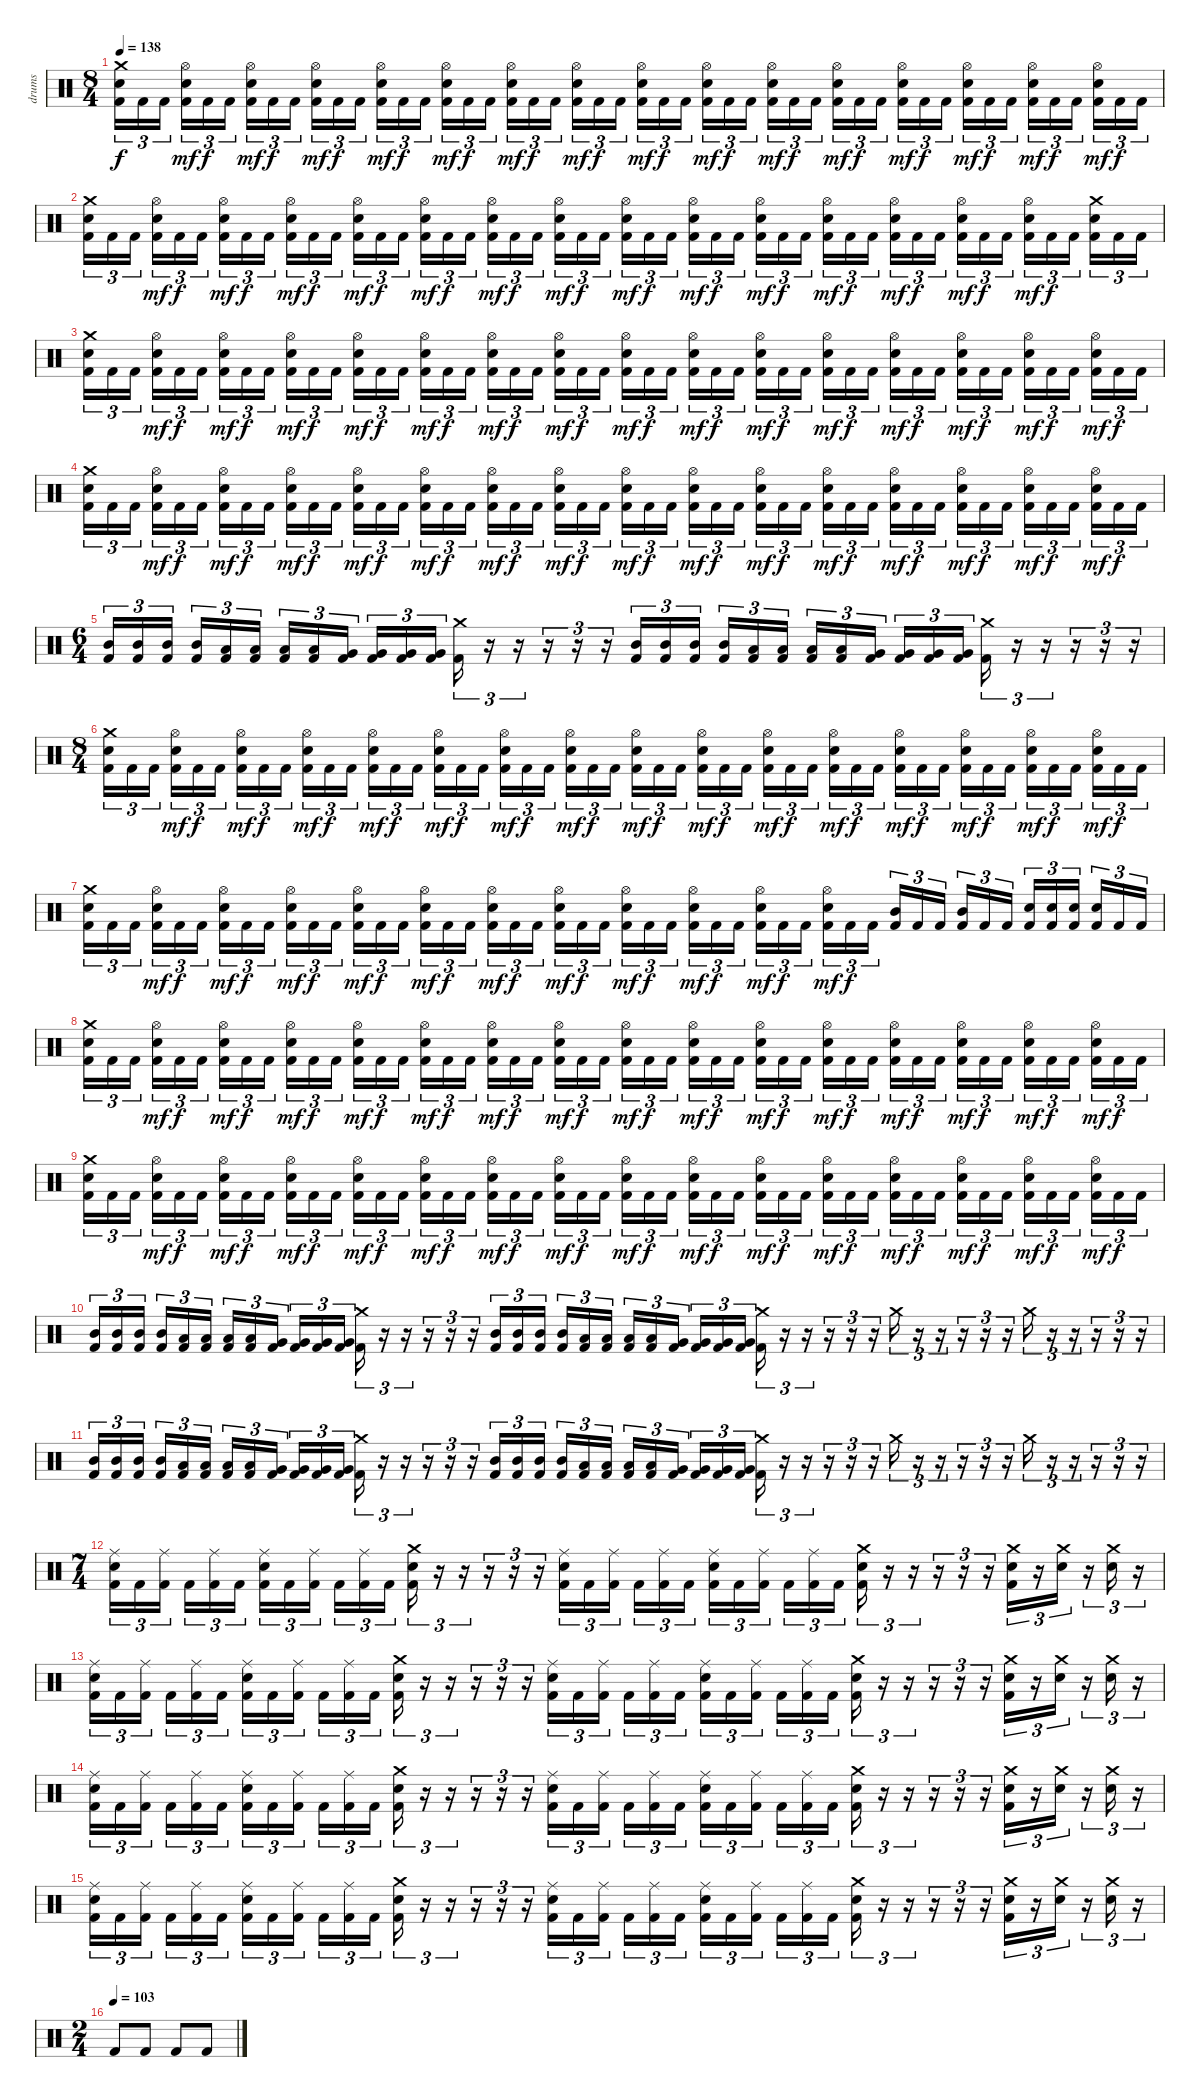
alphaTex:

\track ("drums" "drums") {instrument percussion}
\staff {score}
\articulation defaults
\ts (8 4)
\tempo 138
\clef neutral
\ks c
("Crash medium (hit)" "Electric Snare (hit)" "Kick (hit) 2").16{tu (3 2) dy f} "Kick (hit) 2".16{tu (3 2)} "Kick (hit) 2".16{tu (3 2)} ("Hi-Hat (open)" "Electric Snare (hit)" "Kick (hit) 2").16{tu (3 2) dy mf} "Kick (hit) 2".16{tu (3 2) dy f} "Kick (hit) 2".16{tu (3 2)} ("Hi-Hat (open)" "Electric Snare (hit)" "Kick (hit) 2").16{tu (3 2) dy mf} "Kick (hit) 2".16{tu (3 2) dy f} "Kick (hit) 2".16{tu (3 2)} ("Hi-Hat (open)" "Electric Snare (hit)" "Kick (hit) 2").16{tu (3 2) dy mf} "Kick (hit) 2".16{tu (3 2) dy f} "Kick (hit) 2".16{tu (3 2)} ("Hi-Hat (open)" "Electric Snare (hit)" "Kick (hit) 2").16{tu (3 2) dy mf} "Kick (hit) 2".16{tu (3 2) dy f} "Kick (hit) 2".16{tu (3 2)} ("Hi-Hat (open)" "Electric Snare (hit)" "Kick (hit) 2").16{tu (3 2) dy mf} "Kick (hit) 2".16{tu (3 2) dy f} "Kick (hit) 2".16{tu (3 2)} ("Hi-Hat (open)" "Electric Snare (hit)" "Kick (hit) 2").16{tu (3 2) dy mf} "Kick (hit) 2".16{tu (3 2) dy f} "Kick (hit) 2".16{tu (3 2)} ("Hi-Hat (open)" "Electric Snare (hit)" "Kick (hit) 2").16{tu (3 2) dy mf} "Kick (hit) 2".16{tu (3 2) dy f} "Kick (hit) 2".16{tu (3 2)} ("Hi-Hat (open)" "Electric Snare (hit)" "Kick (hit) 2").16{tu (3 2) dy mf} "Kick (hit) 2".16{tu (3 2) dy f} "Kick (hit) 2".16{tu (3 2)} ("Hi-Hat (open)" "Electric Snare (hit)" "Kick (hit) 2").16{tu (3 2) dy mf} "Kick (hit) 2".16{tu (3 2) dy f} "Kick (hit) 2".16{tu (3 2)} ("Hi-Hat (open)" "Electric Snare (hit)" "Kick (hit) 2").16{tu (3 2) dy mf} "Kick (hit) 2".16{tu (3 2) dy f} "Kick (hit) 2".16{tu (3 2)} ("Hi-Hat (open)" "Electric Snare (hit)" "Kick (hit) 2").16{tu (3 2) dy mf} "Kick (hit) 2".16{tu (3 2) dy f} "Kick (hit) 2".16{tu (3 2)} ("Hi-Hat (open)" "Electric Snare (hit)" "Kick (hit) 2").16{tu (3 2) dy mf} "Kick (hit) 2".16{tu (3 2) dy f} "Kick (hit) 2".16{tu (3 2)} ("Hi-Hat (open)" "Electric Snare (hit)" "Kick (hit) 2").16{tu (3 2) dy mf} "Kick (hit) 2".16{tu (3 2) dy f} "Kick (hit) 2".16{tu (3 2)} ("Hi-Hat (open)" "Electric Snare (hit)" "Kick (hit) 2").16{tu (3 2) dy mf} "Kick (hit) 2".16{tu (3 2) dy f} "Kick (hit) 2".16{tu (3 2)} ("Hi-Hat (open)" "Electric Snare (hit)" "Kick (hit) 2").16{tu (3 2) dy mf} "Kick (hit) 2".16{tu (3 2) dy f} "Kick (hit) 2".16{tu (3 2)} |
("Crash medium (hit)" "Electric Snare (hit)" "Kick (hit) 2").16{tu (3 2)} "Kick (hit) 2".16{tu (3 2)} "Kick (hit) 2".16{tu (3 2)} ("Hi-Hat (open)" "Electric Snare (hit)" "Kick (hit) 2").16{tu (3 2) dy mf} "Kick (hit) 2".16{tu (3 2) dy f} "Kick (hit) 2".16{tu (3 2)} ("Hi-Hat (open)" "Electric Snare (hit)" "Kick (hit) 2").16{tu (3 2) dy mf} "Kick (hit) 2".16{tu (3 2) dy f} "Kick (hit) 2".16{tu (3 2)} ("Hi-Hat (open)" "Electric Snare (hit)" "Kick (hit) 2").16{tu (3 2) dy mf} "Kick (hit) 2".16{tu (3 2) dy f} "Kick (hit) 2".16{tu (3 2)} ("Hi-Hat (open)" "Electric Snare (hit)" "Kick (hit) 2").16{tu (3 2) dy mf} "Kick (hit) 2".16{tu (3 2) dy f} "Kick (hit) 2".16{tu (3 2)} ("Hi-Hat (open)" "Electric Snare (hit)" "Kick (hit) 2").16{tu (3 2) dy mf} "Kick (hit) 2".16{tu (3 2) dy f} "Kick (hit) 2".16{tu (3 2)} ("Hi-Hat (open)" "Electric Snare (hit)" "Kick (hit) 2").16{tu (3 2) dy mf} "Kick (hit) 2".16{tu (3 2) dy f} "Kick (hit) 2".16{tu (3 2)} ("Hi-Hat (open)" "Electric Snare (hit)" "Kick (hit) 2").16{tu (3 2) dy mf} "Kick (hit) 2".16{tu (3 2) dy f} "Kick (hit) 2".16{tu (3 2)} ("Hi-Hat (open)" "Electric Snare (hit)" "Kick (hit) 2").16{tu (3 2) dy mf} "Kick (hit) 2".16{tu (3 2) dy f} "Kick (hit) 2".16{tu (3 2)} ("Hi-Hat (open)" "Electric Snare (hit)" "Kick (hit) 2").16{tu (3 2) dy mf} "Kick (hit) 2".16{tu (3 2) dy f} "Kick (hit) 2".16{tu (3 2)} ("Hi-Hat (open)" "Electric Snare (hit)" "Kick (hit) 2").16{tu (3 2) dy mf} "Kick (hit) 2".16{tu (3 2) dy f} "Kick (hit) 2".16{tu (3 2)} ("Hi-Hat (open)" "Electric Snare (hit)" "Kick (hit) 2").16{tu (3 2) dy mf} "Kick (hit) 2".16{tu (3 2) dy f} "Kick (hit) 2".16{tu (3 2)} ("Hi-Hat (open)" "Electric Snare (hit)" "Kick (hit) 2").16{tu (3 2) dy mf} "Kick (hit) 2".16{tu (3 2) dy f} "Kick (hit) 2".16{tu (3 2)} ("Hi-Hat (open)" "Electric Snare (hit)" "Kick (hit) 2").16{tu (3 2) dy mf} "Kick (hit) 2".16{tu (3 2) dy f} "Kick (hit) 2".16{tu (3 2)} ("Hi-Hat (open)" "Electric Snare (hit)" "Kick (hit) 2").16{tu (3 2) dy mf} "Kick (hit) 2".16{tu (3 2) dy f} "Kick (hit) 2".16{tu (3 2)} ("Crash medium (hit)" "Electric Snare (hit)" "Kick (hit) 2").16{tu (3 2)} "Kick (hit) 2".16{tu (3 2)} "Kick (hit) 2".16{tu (3 2)} |
("Crash medium (hit)" "Electric Snare (hit)" "Kick (hit) 2").16{tu (3 2)} "Kick (hit) 2".16{tu (3 2)} "Kick (hit) 2".16{tu (3 2)} ("Hi-Hat (open)" "Electric Snare (hit)" "Kick (hit) 2").16{tu (3 2) dy mf} "Kick (hit) 2".16{tu (3 2) dy f} "Kick (hit) 2".16{tu (3 2)} ("Hi-Hat (open)" "Electric Snare (hit)" "Kick (hit) 2").16{tu (3 2) dy mf} "Kick (hit) 2".16{tu (3 2) dy f} "Kick (hit) 2".16{tu (3 2)} ("Hi-Hat (open)" "Electric Snare (hit)" "Kick (hit) 2").16{tu (3 2) dy mf} "Kick (hit) 2".16{tu (3 2) dy f} "Kick (hit) 2".16{tu (3 2)} ("Hi-Hat (open)" "Electric Snare (hit)" "Kick (hit) 2").16{tu (3 2) dy mf} "Kick (hit) 2".16{tu (3 2) dy f} "Kick (hit) 2".16{tu (3 2)} ("Hi-Hat (open)" "Electric Snare (hit)" "Kick (hit) 2").16{tu (3 2) dy mf} "Kick (hit) 2".16{tu (3 2) dy f} "Kick (hit) 2".16{tu (3 2)} ("Hi-Hat (open)" "Electric Snare (hit)" "Kick (hit) 2").16{tu (3 2) dy mf} "Kick (hit) 2".16{tu (3 2) dy f} "Kick (hit) 2".16{tu (3 2)} ("Hi-Hat (open)" "Electric Snare (hit)" "Kick (hit) 2").16{tu (3 2) dy mf} "Kick (hit) 2".16{tu (3 2) dy f} "Kick (hit) 2".16{tu (3 2)} ("Hi-Hat (open)" "Electric Snare (hit)" "Kick (hit) 2").16{tu (3 2) dy mf} "Kick (hit) 2".16{tu (3 2) dy f} "Kick (hit) 2".16{tu (3 2)} ("Hi-Hat (open)" "Electric Snare (hit)" "Kick (hit) 2").16{tu (3 2) dy mf} "Kick (hit) 2".16{tu (3 2) dy f} "Kick (hit) 2".16{tu (3 2)} ("Hi-Hat (open)" "Electric Snare (hit)" "Kick (hit) 2").16{tu (3 2) dy mf} "Kick (hit) 2".16{tu (3 2) dy f} "Kick (hit) 2".16{tu (3 2)} ("Hi-Hat (open)" "Electric Snare (hit)" "Kick (hit) 2").16{tu (3 2) dy mf} "Kick (hit) 2".16{tu (3 2) dy f} "Kick (hit) 2".16{tu (3 2)} ("Hi-Hat (open)" "Electric Snare (hit)" "Kick (hit) 2").16{tu (3 2) dy mf} "Kick (hit) 2".16{tu (3 2) dy f} "Kick (hit) 2".16{tu (3 2)} ("Hi-Hat (open)" "Electric Snare (hit)" "Kick (hit) 2").16{tu (3 2) dy mf} "Kick (hit) 2".16{tu (3 2) dy f} "Kick (hit) 2".16{tu (3 2)} ("Hi-Hat (open)" "Electric Snare (hit)" "Kick (hit) 2").16{tu (3 2) dy mf} "Kick (hit) 2".16{tu (3 2) dy f} "Kick (hit) 2".16{tu (3 2)} ("Hi-Hat (open)" "Electric Snare (hit)" "Kick (hit) 2").16{tu (3 2) dy mf} "Kick (hit) 2".16{tu (3 2) dy f} "Kick (hit) 2".16{tu (3 2)} |
("Crash medium (hit)" "Electric Snare (hit)" "Kick (hit) 2").16{tu (3 2)} "Kick (hit) 2".16{tu (3 2)} "Kick (hit) 2".16{tu (3 2)} ("Hi-Hat (open)" "Electric Snare (hit)" "Kick (hit) 2").16{tu (3 2) dy mf} "Kick (hit) 2".16{tu (3 2) dy f} "Kick (hit) 2".16{tu (3 2)} ("Hi-Hat (open)" "Electric Snare (hit)" "Kick (hit) 2").16{tu (3 2) dy mf} "Kick (hit) 2".16{tu (3 2) dy f} "Kick (hit) 2".16{tu (3 2)} ("Hi-Hat (open)" "Electric Snare (hit)" "Kick (hit) 2").16{tu (3 2) dy mf} "Kick (hit) 2".16{tu (3 2) dy f} "Kick (hit) 2".16{tu (3 2)} ("Hi-Hat (open)" "Electric Snare (hit)" "Kick (hit) 2").16{tu (3 2) dy mf} "Kick (hit) 2".16{tu (3 2) dy f} "Kick (hit) 2".16{tu (3 2)} ("Hi-Hat (open)" "Electric Snare (hit)" "Kick (hit) 2").16{tu (3 2) dy mf} "Kick (hit) 2".16{tu (3 2) dy f} "Kick (hit) 2".16{tu (3 2)} ("Hi-Hat (open)" "Electric Snare (hit)" "Kick (hit) 2").16{tu (3 2) dy mf} "Kick (hit) 2".16{tu (3 2) dy f} "Kick (hit) 2".16{tu (3 2)} ("Hi-Hat (open)" "Electric Snare (hit)" "Kick (hit) 2").16{tu (3 2) dy mf} "Kick (hit) 2".16{tu (3 2) dy f} "Kick (hit) 2".16{tu (3 2)} ("Hi-Hat (open)" "Electric Snare (hit)" "Kick (hit) 2").16{tu (3 2) dy mf} "Kick (hit) 2".16{tu (3 2) dy f} "Kick (hit) 2".16{tu (3 2)} ("Hi-Hat (open)" "Electric Snare (hit)" "Kick (hit) 2").16{tu (3 2) dy mf} "Kick (hit) 2".16{tu (3 2) dy f} "Kick (hit) 2".16{tu (3 2)} ("Hi-Hat (open)" "Electric Snare (hit)" "Kick (hit) 2").16{tu (3 2) dy mf} "Kick (hit) 2".16{tu (3 2) dy f} "Kick (hit) 2".16{tu (3 2)} ("Hi-Hat (open)" "Electric Snare (hit)" "Kick (hit) 2").16{tu (3 2) dy mf} "Kick (hit) 2".16{tu (3 2) dy f} "Kick (hit) 2".16{tu (3 2)} ("Hi-Hat (open)" "Electric Snare (hit)" "Kick (hit) 2").16{tu (3 2) dy mf} "Kick (hit) 2".16{tu (3 2) dy f} "Kick (hit) 2".16{tu (3 2)} ("Hi-Hat (open)" "Electric Snare (hit)" "Kick (hit) 2").16{tu (3 2) dy mf} "Kick (hit) 2".16{tu (3 2) dy f} "Kick (hit) 2".16{tu (3 2)} ("Hi-Hat (open)" "Electric Snare (hit)" "Kick (hit) 2").16{tu (3 2) dy mf} "Kick (hit) 2".16{tu (3 2) dy f} "Kick (hit) 2".16{tu (3 2)} ("Hi-Hat (open)" "Electric Snare (hit)" "Kick (hit) 2").16{tu (3 2) dy mf} "Kick (hit) 2".16{tu (3 2) dy f} "Kick (hit) 2".16{tu (3 2)} |
\ts (6 4)
("Mid Tom (hit)" "Kick (hit) 2").16{tu (3 2)} ("Mid Tom (hit)" "Kick (hit) 2").16{tu (3 2)} ("Mid Tom (hit)" "Kick (hit) 2").16{tu (3 2)} ("Mid Tom (hit)" "Kick (hit) 2").16{tu (3 2)} ("Low Tom (hit)" "Kick (hit) 2").16{tu (3 2)} ("Low Tom (hit)" "Kick (hit) 2").16{tu (3 2)} ("Low Tom (hit)" "Kick (hit) 2").16{tu (3 2)} ("Low Tom (hit)" "Kick (hit) 2").16{tu (3 2)} ("Very Low Tom (hit)" "Kick (hit) 2").16{tu (3 2)} ("Very Low Tom (hit)" "Kick (hit) 2").16{tu (3 2)} ("Very Low Tom (hit)" "Kick (hit) 2").16{tu (3 2)} ("Very Low Tom (hit)" "Kick (hit) 2").16{tu (3 2)} ("Crash medium (hit)" "Kick (hit) 2").16{tu (3 2)} r.16{tu (3 2)} r.16{tu (3 2)} r.16{tu (3 2)} r.16{tu (3 2)} r.16{tu (3 2)} ("Mid Tom (hit)" "Kick (hit) 2").16{tu (3 2)} ("Mid Tom (hit)" "Kick (hit) 2").16{tu (3 2)} ("Mid Tom (hit)" "Kick (hit) 2").16{tu (3 2)} ("Mid Tom (hit)" "Kick (hit) 2").16{tu (3 2)} ("Low Tom (hit)" "Kick (hit) 2").16{tu (3 2)} ("Low Tom (hit)" "Kick (hit) 2").16{tu (3 2)} ("Low Tom (hit)" "Kick (hit) 2").16{tu (3 2)} ("Low Tom (hit)" "Kick (hit) 2").16{tu (3 2)} ("Very Low Tom (hit)" "Kick (hit) 2").16{tu (3 2)} ("Very Low Tom (hit)" "Kick (hit) 2").16{tu (3 2)} ("Very Low Tom (hit)" "Kick (hit) 2").16{tu (3 2)} ("Very Low Tom (hit)" "Kick (hit) 2").16{tu (3 2)} ("Crash medium (hit)" "Kick (hit) 2").16{tu (3 2)} r.16{tu (3 2)} r.16{tu (3 2)} r.16{tu (3 2)} r.16{tu (3 2)} r.16{tu (3 2)} |
\ts (8 4)
("Crash medium (hit)" "Electric Snare (hit)" "Kick (hit) 2").16{tu (3 2)} "Kick (hit) 2".16{tu (3 2)} "Kick (hit) 2".16{tu (3 2)} ("Hi-Hat (open)" "Electric Snare (hit)" "Kick (hit) 2").16{tu (3 2) dy mf} "Kick (hit) 2".16{tu (3 2) dy f} "Kick (hit) 2".16{tu (3 2)} ("Hi-Hat (open)" "Electric Snare (hit)" "Kick (hit) 2").16{tu (3 2) dy mf} "Kick (hit) 2".16{tu (3 2) dy f} "Kick (hit) 2".16{tu (3 2)} ("Hi-Hat (open)" "Electric Snare (hit)" "Kick (hit) 2").16{tu (3 2) dy mf} "Kick (hit) 2".16{tu (3 2) dy f} "Kick (hit) 2".16{tu (3 2)} ("Hi-Hat (open)" "Electric Snare (hit)" "Kick (hit) 2").16{tu (3 2) dy mf} "Kick (hit) 2".16{tu (3 2) dy f} "Kick (hit) 2".16{tu (3 2)} ("Hi-Hat (open)" "Electric Snare (hit)" "Kick (hit) 2").16{tu (3 2) dy mf} "Kick (hit) 2".16{tu (3 2) dy f} "Kick (hit) 2".16{tu (3 2)} ("Hi-Hat (open)" "Electric Snare (hit)" "Kick (hit) 2").16{tu (3 2) dy mf} "Kick (hit) 2".16{tu (3 2) dy f} "Kick (hit) 2".16{tu (3 2)} ("Hi-Hat (open)" "Electric Snare (hit)" "Kick (hit) 2").16{tu (3 2) dy mf} "Kick (hit) 2".16{tu (3 2) dy f} "Kick (hit) 2".16{tu (3 2)} ("Hi-Hat (open)" "Electric Snare (hit)" "Kick (hit) 2").16{tu (3 2) dy mf} "Kick (hit) 2".16{tu (3 2) dy f} "Kick (hit) 2".16{tu (3 2)} ("Hi-Hat (open)" "Electric Snare (hit)" "Kick (hit) 2").16{tu (3 2) dy mf} "Kick (hit) 2".16{tu (3 2) dy f} "Kick (hit) 2".16{tu (3 2)} ("Hi-Hat (open)" "Electric Snare (hit)" "Kick (hit) 2").16{tu (3 2) dy mf} "Kick (hit) 2".16{tu (3 2) dy f} "Kick (hit) 2".16{tu (3 2)} ("Hi-Hat (open)" "Electric Snare (hit)" "Kick (hit) 2").16{tu (3 2) dy mf} "Kick (hit) 2".16{tu (3 2) dy f} "Kick (hit) 2".16{tu (3 2)} ("Hi-Hat (open)" "Electric Snare (hit)" "Kick (hit) 2").16{tu (3 2) dy mf} "Kick (hit) 2".16{tu (3 2) dy f} "Kick (hit) 2".16{tu (3 2)} ("Hi-Hat (open)" "Electric Snare (hit)" "Kick (hit) 2").16{tu (3 2) dy mf} "Kick (hit) 2".16{tu (3 2) dy f} "Kick (hit) 2".16{tu (3 2)} ("Hi-Hat (open)" "Electric Snare (hit)" "Kick (hit) 2").16{tu (3 2) dy mf} "Kick (hit) 2".16{tu (3 2) dy f} "Kick (hit) 2".16{tu (3 2)} ("Hi-Hat (open)" "Electric Snare (hit)" "Kick (hit) 2").16{tu (3 2) dy mf} "Kick (hit) 2".16{tu (3 2) dy f} "Kick (hit) 2".16{tu (3 2)} |
("Crash medium (hit)" "Electric Snare (hit)" "Kick (hit) 2").16{tu (3 2)} "Kick (hit) 2".16{tu (3 2)} "Kick (hit) 2".16{tu (3 2)} ("Hi-Hat (open)" "Electric Snare (hit)" "Kick (hit) 2").16{tu (3 2) dy mf} "Kick (hit) 2".16{tu (3 2) dy f} "Kick (hit) 2".16{tu (3 2)} ("Hi-Hat (open)" "Electric Snare (hit)" "Kick (hit) 2").16{tu (3 2) dy mf} "Kick (hit) 2".16{tu (3 2) dy f} "Kick (hit) 2".16{tu (3 2)} ("Hi-Hat (open)" "Electric Snare (hit)" "Kick (hit) 2").16{tu (3 2) dy mf} "Kick (hit) 2".16{tu (3 2) dy f} "Kick (hit) 2".16{tu (3 2)} ("Hi-Hat (open)" "Electric Snare (hit)" "Kick (hit) 2").16{tu (3 2) dy mf} "Kick (hit) 2".16{tu (3 2) dy f} "Kick (hit) 2".16{tu (3 2)} ("Hi-Hat (open)" "Electric Snare (hit)" "Kick (hit) 2").16{tu (3 2) dy mf} "Kick (hit) 2".16{tu (3 2) dy f} "Kick (hit) 2".16{tu (3 2)} ("Hi-Hat (open)" "Electric Snare (hit)" "Kick (hit) 2").16{tu (3 2) dy mf} "Kick (hit) 2".16{tu (3 2) dy f} "Kick (hit) 2".16{tu (3 2)} ("Hi-Hat (open)" "Electric Snare (hit)" "Kick (hit) 2").16{tu (3 2) dy mf} "Kick (hit) 2".16{tu (3 2) dy f} "Kick (hit) 2".16{tu (3 2)} ("Hi-Hat (open)" "Electric Snare (hit)" "Kick (hit) 2").16{tu (3 2) dy mf} "Kick (hit) 2".16{tu (3 2) dy f} "Kick (hit) 2".16{tu (3 2)} ("Hi-Hat (open)" "Electric Snare (hit)" "Kick (hit) 2").16{tu (3 2) dy mf} "Kick (hit) 2".16{tu (3 2) dy f} "Kick (hit) 2".16{tu (3 2)} ("Hi-Hat (open)" "Electric Snare (hit)" "Kick (hit) 2").16{tu (3 2) dy mf} "Kick (hit) 2".16{tu (3 2) dy f} "Kick (hit) 2".16{tu (3 2)} ("Hi-Hat (open)" "Electric Snare (hit)" "Kick (hit) 2").16{tu (3 2) dy mf} "Kick (hit) 2".16{tu (3 2) dy f} "Kick (hit) 2".16{tu (3 2)} ("Mid Tom (hit)" "Kick (hit) 2").16{tu (3 2)} "Kick (hit) 2".16{tu (3 2)} "Kick (hit) 2".16{tu (3 2)} ("Mid Tom (hit)" "Kick (hit) 2").16{tu (3 2)} "Kick (hit) 2".16{tu (3 2)} "Kick (hit) 2".16{tu (3 2)} ("Electric Snare (hit)" "Kick (hit) 2").16{tu (3 2)} ("Electric Snare (hit)" "Kick (hit) 2").16{tu (3 2)} ("Electric Snare (hit)" "Kick (hit) 2").16{tu (3 2)} ("Electric Snare (hit)" "Kick (hit) 2").16{tu (3 2)} "Kick (hit) 2".16{tu (3 2)} "Kick (hit) 2".16{tu (3 2)} |
("Crash medium (hit)" "Electric Snare (hit)" "Kick (hit) 2").16{tu (3 2)} "Kick (hit) 2".16{tu (3 2)} "Kick (hit) 2".16{tu (3 2)} ("Hi-Hat (open)" "Electric Snare (hit)" "Kick (hit) 2").16{tu (3 2) dy mf} "Kick (hit) 2".16{tu (3 2) dy f} "Kick (hit) 2".16{tu (3 2)} ("Hi-Hat (open)" "Electric Snare (hit)" "Kick (hit) 2").16{tu (3 2) dy mf} "Kick (hit) 2".16{tu (3 2) dy f} "Kick (hit) 2".16{tu (3 2)} ("Hi-Hat (open)" "Electric Snare (hit)" "Kick (hit) 2").16{tu (3 2) dy mf} "Kick (hit) 2".16{tu (3 2) dy f} "Kick (hit) 2".16{tu (3 2)} ("Hi-Hat (open)" "Electric Snare (hit)" "Kick (hit) 2").16{tu (3 2) dy mf} "Kick (hit) 2".16{tu (3 2) dy f} "Kick (hit) 2".16{tu (3 2)} ("Hi-Hat (open)" "Electric Snare (hit)" "Kick (hit) 2").16{tu (3 2) dy mf} "Kick (hit) 2".16{tu (3 2) dy f} "Kick (hit) 2".16{tu (3 2)} ("Hi-Hat (open)" "Electric Snare (hit)" "Kick (hit) 2").16{tu (3 2) dy mf} "Kick (hit) 2".16{tu (3 2) dy f} "Kick (hit) 2".16{tu (3 2)} ("Hi-Hat (open)" "Electric Snare (hit)" "Kick (hit) 2").16{tu (3 2) dy mf} "Kick (hit) 2".16{tu (3 2) dy f} "Kick (hit) 2".16{tu (3 2)} ("Hi-Hat (open)" "Electric Snare (hit)" "Kick (hit) 2").16{tu (3 2) dy mf} "Kick (hit) 2".16{tu (3 2) dy f} "Kick (hit) 2".16{tu (3 2)} ("Hi-Hat (open)" "Electric Snare (hit)" "Kick (hit) 2").16{tu (3 2) dy mf} "Kick (hit) 2".16{tu (3 2) dy f} "Kick (hit) 2".16{tu (3 2)} ("Hi-Hat (open)" "Electric Snare (hit)" "Kick (hit) 2").16{tu (3 2) dy mf} "Kick (hit) 2".16{tu (3 2) dy f} "Kick (hit) 2".16{tu (3 2)} ("Hi-Hat (open)" "Electric Snare (hit)" "Kick (hit) 2").16{tu (3 2) dy mf} "Kick (hit) 2".16{tu (3 2) dy f} "Kick (hit) 2".16{tu (3 2)} ("Hi-Hat (open)" "Electric Snare (hit)" "Kick (hit) 2").16{tu (3 2) dy mf} "Kick (hit) 2".16{tu (3 2) dy f} "Kick (hit) 2".16{tu (3 2)} ("Hi-Hat (open)" "Electric Snare (hit)" "Kick (hit) 2").16{tu (3 2) dy mf} "Kick (hit) 2".16{tu (3 2) dy f} "Kick (hit) 2".16{tu (3 2)} ("Hi-Hat (open)" "Electric Snare (hit)" "Kick (hit) 2").16{tu (3 2) dy mf} "Kick (hit) 2".16{tu (3 2) dy f} "Kick (hit) 2".16{tu (3 2)} ("Hi-Hat (open)" "Electric Snare (hit)" "Kick (hit) 2").16{tu (3 2) dy mf} "Kick (hit) 2".16{tu (3 2) dy f} "Kick (hit) 2".16{tu (3 2)} |
("Crash medium (hit)" "Electric Snare (hit)" "Kick (hit) 2").16{tu (3 2)} "Kick (hit) 2".16{tu (3 2)} "Kick (hit) 2".16{tu (3 2)} ("Hi-Hat (open)" "Electric Snare (hit)" "Kick (hit) 2").16{tu (3 2) dy mf} "Kick (hit) 2".16{tu (3 2) dy f} "Kick (hit) 2".16{tu (3 2)} ("Hi-Hat (open)" "Electric Snare (hit)" "Kick (hit) 2").16{tu (3 2) dy mf} "Kick (hit) 2".16{tu (3 2) dy f} "Kick (hit) 2".16{tu (3 2)} ("Hi-Hat (open)" "Electric Snare (hit)" "Kick (hit) 2").16{tu (3 2) dy mf} "Kick (hit) 2".16{tu (3 2) dy f} "Kick (hit) 2".16{tu (3 2)} ("Hi-Hat (open)" "Electric Snare (hit)" "Kick (hit) 2").16{tu (3 2) dy mf} "Kick (hit) 2".16{tu (3 2) dy f} "Kick (hit) 2".16{tu (3 2)} ("Hi-Hat (open)" "Electric Snare (hit)" "Kick (hit) 2").16{tu (3 2) dy mf} "Kick (hit) 2".16{tu (3 2) dy f} "Kick (hit) 2".16{tu (3 2)} ("Hi-Hat (open)" "Electric Snare (hit)" "Kick (hit) 2").16{tu (3 2) dy mf} "Kick (hit) 2".16{tu (3 2) dy f} "Kick (hit) 2".16{tu (3 2)} ("Hi-Hat (open)" "Electric Snare (hit)" "Kick (hit) 2").16{tu (3 2) dy mf} "Kick (hit) 2".16{tu (3 2) dy f} "Kick (hit) 2".16{tu (3 2)} ("Hi-Hat (open)" "Electric Snare (hit)" "Kick (hit) 2").16{tu (3 2) dy mf} "Kick (hit) 2".16{tu (3 2) dy f} "Kick (hit) 2".16{tu (3 2)} ("Hi-Hat (open)" "Electric Snare (hit)" "Kick (hit) 2").16{tu (3 2) dy mf} "Kick (hit) 2".16{tu (3 2) dy f} "Kick (hit) 2".16{tu (3 2)} ("Hi-Hat (open)" "Electric Snare (hit)" "Kick (hit) 2").16{tu (3 2) dy mf} "Kick (hit) 2".16{tu (3 2) dy f} "Kick (hit) 2".16{tu (3 2)} ("Hi-Hat (open)" "Electric Snare (hit)" "Kick (hit) 2").16{tu (3 2) dy mf} "Kick (hit) 2".16{tu (3 2) dy f} "Kick (hit) 2".16{tu (3 2)} ("Hi-Hat (open)" "Electric Snare (hit)" "Kick (hit) 2").16{tu (3 2) dy mf} "Kick (hit) 2".16{tu (3 2) dy f} "Kick (hit) 2".16{tu (3 2)} ("Hi-Hat (open)" "Electric Snare (hit)" "Kick (hit) 2").16{tu (3 2) dy mf} "Kick (hit) 2".16{tu (3 2) dy f} "Kick (hit) 2".16{tu (3 2)} ("Hi-Hat (open)" "Electric Snare (hit)" "Kick (hit) 2").16{tu (3 2) dy mf} "Kick (hit) 2".16{tu (3 2) dy f} "Kick (hit) 2".16{tu (3 2)} ("Hi-Hat (open)" "Electric Snare (hit)" "Kick (hit) 2").16{tu (3 2) dy mf} "Kick (hit) 2".16{tu (3 2) dy f} "Kick (hit) 2".16{tu (3 2)} |
("Mid Tom (hit)" "Kick (hit) 2").16{tu (3 2)} ("Mid Tom (hit)" "Kick (hit) 2").16{tu (3 2)} ("Mid Tom (hit)" "Kick (hit) 2").16{tu (3 2)} ("Mid Tom (hit)" "Kick (hit) 2").16{tu (3 2)} ("Low Tom (hit)" "Kick (hit) 2").16{tu (3 2)} ("Low Tom (hit)" "Kick (hit) 2").16{tu (3 2)} ("Low Tom (hit)" "Kick (hit) 2").16{tu (3 2)} ("Low Tom (hit)" "Kick (hit) 2").16{tu (3 2)} ("Very Low Tom (hit)" "Kick (hit) 2").16{tu (3 2)} ("Very Low Tom (hit)" "Kick (hit) 2").16{tu (3 2)} ("Very Low Tom (hit)" "Kick (hit) 2").16{tu (3 2)} ("Very Low Tom (hit)" "Kick (hit) 2").16{tu (3 2)} ("Crash medium (hit)" "Kick (hit) 2").16{tu (3 2)} r.16{tu (3 2)} r.16{tu (3 2)} r.16{tu (3 2)} r.16{tu (3 2)} r.16{tu (3 2)} ("Mid Tom (hit)" "Kick (hit) 2").16{tu (3 2)} ("Mid Tom (hit)" "Kick (hit) 2").16{tu (3 2)} ("Mid Tom (hit)" "Kick (hit) 2").16{tu (3 2)} ("Mid Tom (hit)" "Kick (hit) 2").16{tu (3 2)} ("Low Tom (hit)" "Kick (hit) 2").16{tu (3 2)} ("Low Tom (hit)" "Kick (hit) 2").16{tu (3 2)} ("Low Tom (hit)" "Kick (hit) 2").16{tu (3 2)} ("Low Tom (hit)" "Kick (hit) 2").16{tu (3 2)} ("Very Low Tom (hit)" "Kick (hit) 2").16{tu (3 2)} ("Very Low Tom (hit)" "Kick (hit) 2").16{tu (3 2)} ("Very Low Tom (hit)" "Kick (hit) 2").16{tu (3 2)} ("Very Low Tom (hit)" "Kick (hit) 2").16{tu (3 2)} ("Crash medium (hit)" "Kick (hit) 2").16{tu (3 2)} r.16{tu (3 2)} r.16{tu (3 2)} r.16{tu (3 2)} r.16{tu (3 2)} r.16{tu (3 2)} "Crash medium (hit)".16{tu (3 2)} r.16{tu (3 2)} r.16{tu (3 2)} r.16{tu (3 2)} r.16{tu (3 2)} r.16{tu (3 2)} "Crash medium (hit)".16{tu (3 2)} r.16{tu (3 2)} r.16{tu (3 2)} r.16{tu (3 2)} r.16{tu (3 2)} r.16{tu (3 2)} |
("Mid Tom (hit)" "Kick (hit) 2").16{tu (3 2)} ("Mid Tom (hit)" "Kick (hit) 2").16{tu (3 2)} ("Mid Tom (hit)" "Kick (hit) 2").16{tu (3 2)} ("Mid Tom (hit)" "Kick (hit) 2").16{tu (3 2)} ("Low Tom (hit)" "Kick (hit) 2").16{tu (3 2)} ("Low Tom (hit)" "Kick (hit) 2").16{tu (3 2)} ("Low Tom (hit)" "Kick (hit) 2").16{tu (3 2)} ("Low Tom (hit)" "Kick (hit) 2").16{tu (3 2)} ("Very Low Tom (hit)" "Kick (hit) 2").16{tu (3 2)} ("Very Low Tom (hit)" "Kick (hit) 2").16{tu (3 2)} ("Very Low Tom (hit)" "Kick (hit) 2").16{tu (3 2)} ("Very Low Tom (hit)" "Kick (hit) 2").16{tu (3 2)} ("Crash medium (hit)" "Kick (hit) 2").16{tu (3 2)} r.16{tu (3 2)} r.16{tu (3 2)} r.16{tu (3 2)} r.16{tu (3 2)} r.16{tu (3 2)} ("Mid Tom (hit)" "Kick (hit) 2").16{tu (3 2)} ("Mid Tom (hit)" "Kick (hit) 2").16{tu (3 2)} ("Mid Tom (hit)" "Kick (hit) 2").16{tu (3 2)} ("Mid Tom (hit)" "Kick (hit) 2").16{tu (3 2)} ("Low Tom (hit)" "Kick (hit) 2").16{tu (3 2)} ("Low Tom (hit)" "Kick (hit) 2").16{tu (3 2)} ("Low Tom (hit)" "Kick (hit) 2").16{tu (3 2)} ("Low Tom (hit)" "Kick (hit) 2").16{tu (3 2)} ("Very Low Tom (hit)" "Kick (hit) 2").16{tu (3 2)} ("Very Low Tom (hit)" "Kick (hit) 2").16{tu (3 2)} ("Very Low Tom (hit)" "Kick (hit) 2").16{tu (3 2)} ("Very Low Tom (hit)" "Kick (hit) 2").16{tu (3 2)} ("Crash medium (hit)" "Kick (hit) 2").16{tu (3 2)} r.16{tu (3 2)} r.16{tu (3 2)} r.16{tu (3 2)} r.16{tu (3 2)} r.16{tu (3 2)} "Crash medium (hit)".16{tu (3 2)} r.16{tu (3 2)} r.16{tu (3 2)} r.16{tu (3 2)} r.16{tu (3 2)} r.16{tu (3 2)} "Crash medium (hit)".16{tu (3 2)} r.16{tu (3 2)} r.16{tu (3 2)} r.16{tu (3 2)} r.16{tu (3 2)} r.16{tu (3 2)} |
\ts (7 4)
("Ride (middle)" "Electric Snare (hit)" "Kick (hit) 2").16{tu (3 2)} "Kick (hit) 2".16{tu (3 2)} ("Ride (middle)" "Kick (hit) 2").16{tu (3 2)} "Kick (hit) 2".16{tu (3 2)} ("Ride (middle)" "Kick (hit) 2").16{tu (3 2)} "Kick (hit) 2".16{tu (3 2)} ("Ride (middle)" "Electric Snare (hit)" "Kick (hit) 2").16{tu (3 2)} "Kick (hit) 2".16{tu (3 2)} ("Ride (middle)" "Kick (hit) 2").16{tu (3 2)} "Kick (hit) 2".16{tu (3 2)} ("Ride (middle)" "Kick (hit) 2").16{tu (3 2)} "Kick (hit) 2".16{tu (3 2)} ("Crash medium (hit)" "Electric Snare (hit)" "Kick (hit) 2").16{tu (3 2)} r.16{tu (3 2)} r.16{tu (3 2)} r.16{tu (3 2)} r.16{tu (3 2)} r.16{tu (3 2)} ("Ride (middle)" "Electric Snare (hit)" "Kick (hit) 2").16{tu (3 2)} "Kick (hit) 2".16{tu (3 2)} ("Ride (middle)" "Kick (hit) 2").16{tu (3 2)} "Kick (hit) 2".16{tu (3 2)} ("Ride (middle)" "Kick (hit) 2").16{tu (3 2)} "Kick (hit) 2".16{tu (3 2)} ("Ride (middle)" "Electric Snare (hit)" "Kick (hit) 2").16{tu (3 2)} "Kick (hit) 2".16{tu (3 2)} ("Ride (middle)" "Kick (hit) 2").16{tu (3 2)} "Kick (hit) 2".16{tu (3 2)} ("Ride (middle)" "Kick (hit) 2").16{tu (3 2)} "Kick (hit) 2".16{tu (3 2)} ("Crash medium (hit)" "Electric Snare (hit)" "Kick (hit) 2").16{tu (3 2)} r.16{tu (3 2)} r.16{tu (3 2)} r.16{tu (3 2)} r.16{tu (3 2)} r.16{tu (3 2)} ("Crash medium (hit)" "Electric Snare (hit)" "Kick (hit) 2").16{tu (3 2)} r.16{tu (3 2)} ("Crash medium (hit)" "Electric Snare (hit)").16{tu (3 2)} r.16{tu (3 2)} ("Crash medium (hit)" "Electric Snare (hit)").16{tu (3 2)} r.16{tu (3 2)} |
("Ride (middle)" "Electric Snare (hit)" "Kick (hit) 2").16{tu (3 2)} "Kick (hit) 2".16{tu (3 2)} ("Ride (middle)" "Kick (hit) 2").16{tu (3 2)} "Kick (hit) 2".16{tu (3 2)} ("Ride (middle)" "Kick (hit) 2").16{tu (3 2)} "Kick (hit) 2".16{tu (3 2)} ("Ride (middle)" "Electric Snare (hit)" "Kick (hit) 2").16{tu (3 2)} "Kick (hit) 2".16{tu (3 2)} ("Ride (middle)" "Kick (hit) 2").16{tu (3 2)} "Kick (hit) 2".16{tu (3 2)} ("Ride (middle)" "Kick (hit) 2").16{tu (3 2)} "Kick (hit) 2".16{tu (3 2)} ("Crash medium (hit)" "Electric Snare (hit)" "Kick (hit) 2").16{tu (3 2)} r.16{tu (3 2)} r.16{tu (3 2)} r.16{tu (3 2)} r.16{tu (3 2)} r.16{tu (3 2)} ("Ride (middle)" "Electric Snare (hit)" "Kick (hit) 2").16{tu (3 2)} "Kick (hit) 2".16{tu (3 2)} ("Ride (middle)" "Kick (hit) 2").16{tu (3 2)} "Kick (hit) 2".16{tu (3 2)} ("Ride (middle)" "Kick (hit) 2").16{tu (3 2)} "Kick (hit) 2".16{tu (3 2)} ("Ride (middle)" "Electric Snare (hit)" "Kick (hit) 2").16{tu (3 2)} "Kick (hit) 2".16{tu (3 2)} ("Ride (middle)" "Kick (hit) 2").16{tu (3 2)} "Kick (hit) 2".16{tu (3 2)} ("Ride (middle)" "Kick (hit) 2").16{tu (3 2)} "Kick (hit) 2".16{tu (3 2)} ("Crash medium (hit)" "Electric Snare (hit)" "Kick (hit) 2").16{tu (3 2)} r.16{tu (3 2)} r.16{tu (3 2)} r.16{tu (3 2)} r.16{tu (3 2)} r.16{tu (3 2)} ("Crash medium (hit)" "Electric Snare (hit)" "Kick (hit) 2").16{tu (3 2)} r.16{tu (3 2)} ("Crash medium (hit)" "Electric Snare (hit)").16{tu (3 2)} r.16{tu (3 2)} ("Crash medium (hit)" "Electric Snare (hit)").16{tu (3 2)} r.16{tu (3 2)} |
("Ride (middle)" "Electric Snare (hit)" "Kick (hit) 2").16{tu (3 2)} "Kick (hit) 2".16{tu (3 2)} ("Ride (middle)" "Kick (hit) 2").16{tu (3 2)} "Kick (hit) 2".16{tu (3 2)} ("Ride (middle)" "Kick (hit) 2").16{tu (3 2)} "Kick (hit) 2".16{tu (3 2)} ("Ride (middle)" "Electric Snare (hit)" "Kick (hit) 2").16{tu (3 2)} "Kick (hit) 2".16{tu (3 2)} ("Ride (middle)" "Kick (hit) 2").16{tu (3 2)} "Kick (hit) 2".16{tu (3 2)} ("Ride (middle)" "Kick (hit) 2").16{tu (3 2)} "Kick (hit) 2".16{tu (3 2)} ("Crash medium (hit)" "Electric Snare (hit)" "Kick (hit) 2").16{tu (3 2)} r.16{tu (3 2)} r.16{tu (3 2)} r.16{tu (3 2)} r.16{tu (3 2)} r.16{tu (3 2)} ("Ride (middle)" "Electric Snare (hit)" "Kick (hit) 2").16{tu (3 2)} "Kick (hit) 2".16{tu (3 2)} ("Ride (middle)" "Kick (hit) 2").16{tu (3 2)} "Kick (hit) 2".16{tu (3 2)} ("Ride (middle)" "Kick (hit) 2").16{tu (3 2)} "Kick (hit) 2".16{tu (3 2)} ("Ride (middle)" "Electric Snare (hit)" "Kick (hit) 2").16{tu (3 2)} "Kick (hit) 2".16{tu (3 2)} ("Ride (middle)" "Kick (hit) 2").16{tu (3 2)} "Kick (hit) 2".16{tu (3 2)} ("Ride (middle)" "Kick (hit) 2").16{tu (3 2)} "Kick (hit) 2".16{tu (3 2)} ("Crash medium (hit)" "Electric Snare (hit)" "Kick (hit) 2").16{tu (3 2)} r.16{tu (3 2)} r.16{tu (3 2)} r.16{tu (3 2)} r.16{tu (3 2)} r.16{tu (3 2)} ("Crash medium (hit)" "Electric Snare (hit)" "Kick (hit) 2").16{tu (3 2)} r.16{tu (3 2)} ("Crash medium (hit)" "Electric Snare (hit)").16{tu (3 2)} r.16{tu (3 2)} ("Crash medium (hit)" "Electric Snare (hit)").16{tu (3 2)} r.16{tu (3 2)} |
("Ride (middle)" "Electric Snare (hit)" "Kick (hit) 2").16{tu (3 2)} "Kick (hit) 2".16{tu (3 2)} ("Ride (middle)" "Kick (hit) 2").16{tu (3 2)} "Kick (hit) 2".16{tu (3 2)} ("Ride (middle)" "Kick (hit) 2").16{tu (3 2)} "Kick (hit) 2".16{tu (3 2)} ("Ride (middle)" "Electric Snare (hit)" "Kick (hit) 2").16{tu (3 2)} "Kick (hit) 2".16{tu (3 2)} ("Ride (middle)" "Kick (hit) 2").16{tu (3 2)} "Kick (hit) 2".16{tu (3 2)} ("Ride (middle)" "Kick (hit) 2").16{tu (3 2)} "Kick (hit) 2".16{tu (3 2)} ("Crash medium (hit)" "Electric Snare (hit)" "Kick (hit) 2").16{tu (3 2)} r.16{tu (3 2)} r.16{tu (3 2)} r.16{tu (3 2)} r.16{tu (3 2)} r.16{tu (3 2)} ("Ride (middle)" "Electric Snare (hit)" "Kick (hit) 2").16{tu (3 2)} "Kick (hit) 2".16{tu (3 2)} ("Ride (middle)" "Kick (hit) 2").16{tu (3 2)} "Kick (hit) 2".16{tu (3 2)} ("Ride (middle)" "Kick (hit) 2").16{tu (3 2)} "Kick (hit) 2".16{tu (3 2)} ("Ride (middle)" "Electric Snare (hit)" "Kick (hit) 2").16{tu (3 2)} "Kick (hit) 2".16{tu (3 2)} ("Ride (middle)" "Kick (hit) 2").16{tu (3 2)} "Kick (hit) 2".16{tu (3 2)} ("Ride (middle)" "Kick (hit) 2").16{tu (3 2)} "Kick (hit) 2".16{tu (3 2)} ("Crash medium (hit)" "Electric Snare (hit)" "Kick (hit) 2").16{tu (3 2)} r.16{tu (3 2)} r.16{tu (3 2)} r.16{tu (3 2)} r.16{tu (3 2)} r.16{tu (3 2)} ("Crash medium (hit)" "Electric Snare (hit)" "Kick (hit) 2").16{tu (3 2)} r.16{tu (3 2)} ("Crash medium (hit)" "Electric Snare (hit)").16{tu (3 2)} r.16{tu (3 2)} ("Crash medium (hit)" "Electric Snare (hit)").16{tu (3 2)} r.16{tu (3 2)} |
\ts (2 4)
\tempo (103)
"Kick (hit) 2".8 "Kick (hit) 2".8 "Kick (hit) 2".8 "Kick (hit) 2".8
